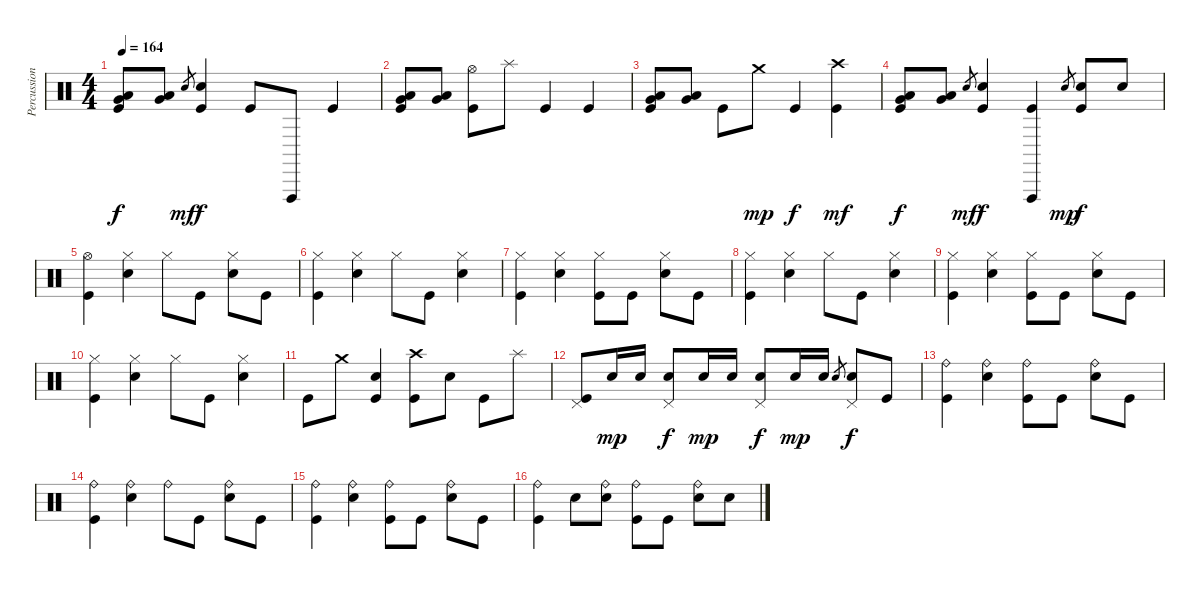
\track ("Percussion" "Percussion") {instrument percussion}
\staff {score}
\articulation defaults
\ts (4 4)
\tempo 164
\clef neutral
\ks c
("Low Tom (hit)" "Very Low Tom (hit)" "Kick (hit)").8{dy f} ("Low Tom (hit)" "Very Low Tom (hit)").8 "Electric Snare (hit)".8{gr dy mf} ("Electric Snare (hit)" "Kick (hit)").4{dy f} "Kick (hit)".8 "Vibraslap (hit)".8 "Kick (hit)".4 |
("Low Tom (hit)" "Very Low Tom (hit)" "Kick (hit)").8 ("Low Tom (hit)" "Very Low Tom (hit)").8 ("Hi-Hat (open)" "Kick (hit)").8 "Splash (hit)".8 "Kick (hit)".4 "Kick (hit)".4 |
("Low Tom (hit)" "Very Low Tom (hit)" "Kick (hit)").8 ("Low Tom (hit)" "Very Low Tom (hit)").8 "Kick (hit)".8 "Crash medium (hit)".8{dy mp} "Kick (hit)".4{dy f} ("Crash high (hit)" "Kick (hit)").4{dy mf} |
("Low Tom (hit)" "Very Low Tom (hit)" "Kick (hit)").8{dy f} ("Low Tom (hit)" "Very Low Tom (hit)").8 "Electric Snare (hit)".8{gr dy mf} ("Electric Snare (hit)" "Kick (hit)").4{dy f} ("Vibraslap (hit)" "Kick (hit)").4 "Electric Snare (hit)".8{gr dy mp} ("Electric Snare (hit)" "Kick (hit)").8{dy f} "Electric Snare (hit)".8 |
("Hi-Hat (open)" "Kick (hit)").4 ("Hi-Hat (closed)" "Electric Snare (hit)").4 "Hi-Hat (closed)".8 "Kick (hit)".8 ("Hi-Hat (closed)" "Electric Snare (hit)").8 "Kick (hit)".8 |
("Hi-Hat (closed)" "Kick (hit)").4 ("Hi-Hat (closed)" "Electric Snare (hit)").4 "Hi-Hat (closed)".8 "Kick (hit)".8 ("Hi-Hat (closed)" "Electric Snare (hit)").4 |
("Hi-Hat (closed)" "Kick (hit)").4 ("Hi-Hat (closed)" "Electric Snare (hit)").4 ("Hi-Hat (closed)" "Kick (hit)").8 "Kick (hit)".8 ("Hi-Hat (closed)" "Electric Snare (hit)").8 "Kick (hit)".8 |
("Hi-Hat (closed)" "Kick (hit)").4 ("Hi-Hat (closed)" "Electric Snare (hit)").4 "Hi-Hat (closed)".8 "Kick (hit)".8 ("Hi-Hat (closed)" "Electric Snare (hit)").4 |
("Hi-Hat (closed)" "Kick (hit)").4 ("Hi-Hat (closed)" "Electric Snare (hit)").4 ("Hi-Hat (closed)" "Kick (hit)").8 "Kick (hit)".8 ("Hi-Hat (closed)" "Electric Snare (hit)").8 "Kick (hit)".8 |
("Hi-Hat (closed)" "Kick (hit)").4 ("Hi-Hat (closed)" "Electric Snare (hit)").4 "Hi-Hat (closed)".8 "Kick (hit)".8 ("Hi-Hat (closed)" "Electric Snare (hit)").4 |
"Kick (hit)".8 "Crash medium (hit)".8 ("Electric Snare (hit)" "Kick (hit)").4 ("Crash high (hit)" "Kick (hit)").8 "Electric Snare (hit)".8 "Kick (hit)".8 "Splash (hit)".8 |
("Pedal Hi-Hat (hit)" "Kick (hit)").8 "Electric Snare (hit)".16{dy mp} "Electric Snare (hit)".16 ("Pedal Hi-Hat (hit)" "Electric Snare (hit)").8{dy f} "Electric Snare (hit)".16{dy mp} "Electric Snare (hit)".16 ("Pedal Hi-Hat (hit)" "Electric Snare (hit)").8{dy f} "Electric Snare (hit)".16{dy mp} "Electric Snare (hit)".16 "Electric Snare (hit)".8{gr} ("Pedal Hi-Hat (hit)" "Electric Snare (hit)").8{dy f} "Kick (hit)".8 |
("Ride (bell)" "Kick (hit)").4 ("Ride (bell)" "Electric Snare (hit)").4 ("Ride (bell)" "Kick (hit)").8 "Kick (hit)".8 ("Ride (bell)" "Electric Snare (hit)").8 "Kick (hit)".8 |
("Ride (bell)" "Kick (hit)").4 ("Ride (bell)" "Electric Snare (hit)").4 "Ride (bell)".8 "Kick (hit)".8 ("Ride (bell)" "Electric Snare (hit)").8 "Kick (hit)".8 |
("Ride (bell)" "Kick (hit)").4 ("Ride (bell)" "Electric Snare (hit)").4 ("Ride (bell)" "Kick (hit)").8 "Kick (hit)".8 ("Ride (bell)" "Electric Snare (hit)").8 "Kick (hit)".8 |
("Ride (bell)" "Kick (hit)").4 "Electric Snare (hit)".8 ("Ride (bell)" "Electric Snare (hit)").8 ("Ride (bell)" "Kick (hit)").8 "Kick (hit)".8 ("Ride (bell)" "Electric Snare (hit)").8 "Electric Snare (hit)".8
